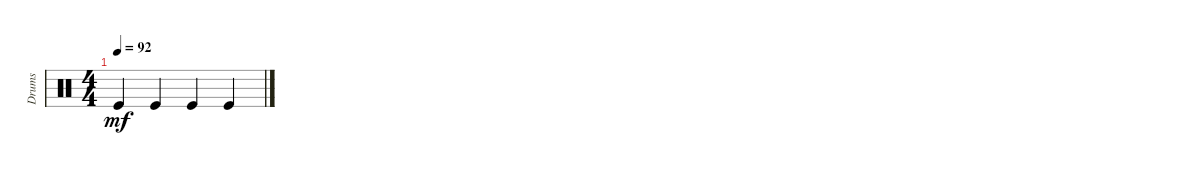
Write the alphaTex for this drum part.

\track ("Drumkit" "Drums") {instrument percussion}
\staff {score}
\articulation defaults
\ts (4 4)
\tempo 92
\clef neutral
\ks c "Kick (hit)".4{dy mf} "Kick (hit)".4 "Kick (hit)".4 "Kick (hit)".4
